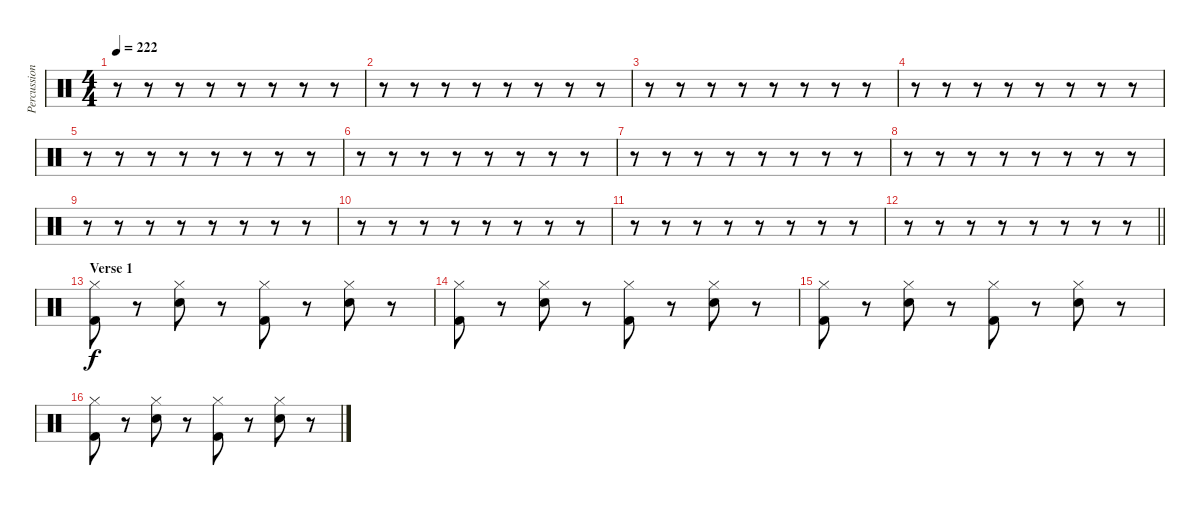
\track ("Percussion" "Percussion") {instrument percussion}
\staff {score}
\articulation defaults
\ts (4 4)
\tempo 222
\clef neutral
\ks c
r.8{dy f} r.8 r.8 r.8 r.8 r.8 r.8 r.8 |
r.8 r.8 r.8 r.8 r.8 r.8 r.8 r.8 |
r.8 r.8 r.8 r.8 r.8 r.8 r.8 r.8 |
r.8 r.8 r.8 r.8 r.8 r.8 r.8 r.8 |
r.8 r.8 r.8 r.8 r.8 r.8 r.8 r.8 |
r.8 r.8 r.8 r.8 r.8 r.8 r.8 r.8 |
r.8 r.8 r.8 r.8 r.8 r.8 r.8 r.8 |
r.8 r.8 r.8 r.8 r.8 r.8 r.8 r.8 |
r.8 r.8 r.8 r.8 r.8 r.8 r.8 r.8 |
r.8 r.8 r.8 r.8 r.8 r.8 r.8 r.8 |
r.8 r.8 r.8 r.8 r.8 r.8 r.8 r.8 |
\barLineRight lightlight
r.8 r.8 r.8 r.8 r.8 r.8 r.8 r.8 |
\section ("" "Verse 1")
("Kick (hit) 2" "Hi-Hat (closed)").8 r.8 ("Snare (hit) 2" "Hi-Hat (closed)").8 r.8 ("Kick (hit) 2" "Hi-Hat (closed)").8 r.8 ("Snare (hit) 2" "Hi-Hat (closed)").8 r.8 |
("Kick (hit) 2" "Hi-Hat (closed)").8 r.8 ("Snare (hit) 2" "Hi-Hat (closed)").8 r.8 ("Kick (hit) 2" "Hi-Hat (closed)").8 r.8 ("Snare (hit) 2" "Hi-Hat (closed)").8 r.8 |
("Kick (hit) 2" "Hi-Hat (closed)").8 r.8 ("Snare (hit) 2" "Hi-Hat (closed)").8 r.8 ("Kick (hit) 2" "Hi-Hat (closed)").8 r.8 ("Snare (hit) 2" "Hi-Hat (closed)").8 r.8 |
("Kick (hit) 2" "Hi-Hat (closed)").8 r.8 ("Snare (hit) 2" "Hi-Hat (closed)").8 r.8 ("Kick (hit) 2" "Hi-Hat (closed)").8 r.8 ("Snare (hit) 2" "Hi-Hat (closed)").8 r.8
